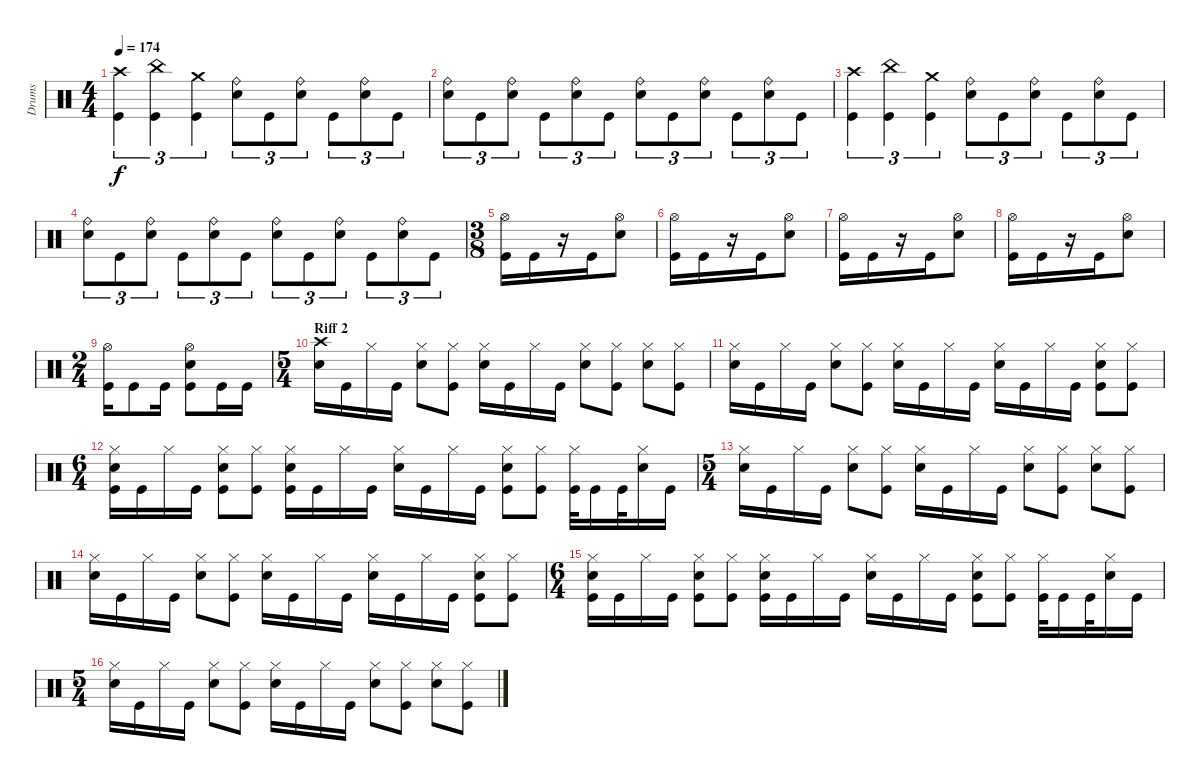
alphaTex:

\track ("Drums" "Drums") {instrument percussion}
\staff {score}
\articulation defaults
\ts (4 4)
\tempo 174
\clef neutral
\ks c
("Crash high (hit)" "Kick (hit)").4{tu (3 2) dy f} ("China (hit)" "Kick (hit)").4{tu (3 2)} ("Crash medium (hit)" "Kick (hit)").4{tu (3 2)} ("Ride (bell)" "Electric Snare (hit)").8{tu (3 2)} "Kick (hit)".8{tu (3 2)} ("Ride (bell)" "Electric Snare (hit)").8{tu (3 2)} "Kick (hit)".8{tu (3 2)} ("Ride (bell)" "Electric Snare (hit)").8{tu (3 2)} "Kick (hit)".8{tu (3 2)} |
("Ride (bell)" "Electric Snare (hit)").8{tu (3 2)} "Kick (hit)".8{tu (3 2)} ("Ride (bell)" "Electric Snare (hit)").8{tu (3 2)} "Kick (hit)".8{tu (3 2)} ("Ride (bell)" "Electric Snare (hit)").8{tu (3 2)} "Kick (hit)".8{tu (3 2)} ("Ride (bell)" "Electric Snare (hit)").8{tu (3 2)} "Kick (hit)".8{tu (3 2)} ("Ride (bell)" "Electric Snare (hit)").8{tu (3 2)} "Kick (hit)".8{tu (3 2)} ("Ride (bell)" "Electric Snare (hit)").8{tu (3 2)} "Kick (hit)".8{tu (3 2)} |
("Crash high (hit)" "Kick (hit)").4{tu (3 2)} ("China (hit)" "Kick (hit)").4{tu (3 2)} ("Crash medium (hit)" "Kick (hit)").4{tu (3 2)} ("Ride (bell)" "Electric Snare (hit)").8{tu (3 2)} "Kick (hit)".8{tu (3 2)} ("Ride (bell)" "Electric Snare (hit)").8{tu (3 2)} "Kick (hit)".8{tu (3 2)} ("Ride (bell)" "Electric Snare (hit)").8{tu (3 2)} "Kick (hit)".8{tu (3 2)} |
("Ride (bell)" "Electric Snare (hit)").8{tu (3 2)} "Kick (hit)".8{tu (3 2)} ("Ride (bell)" "Electric Snare (hit)").8{tu (3 2)} "Kick (hit)".8{tu (3 2)} ("Ride (bell)" "Electric Snare (hit)").8{tu (3 2)} "Kick (hit)".8{tu (3 2)} ("Ride (bell)" "Electric Snare (hit)").8{tu (3 2)} "Kick (hit)".8{tu (3 2)} ("Ride (bell)" "Electric Snare (hit)").8{tu (3 2)} "Kick (hit)".8{tu (3 2)} ("Ride (bell)" "Electric Snare (hit)").8{tu (3 2)} "Kick (hit)".8{tu (3 2)} |
\ts (3 8)
("Hi-Hat (open)" "Kick (hit)").16 "Kick (hit)".16 r.16 "Kick (hit)".16 ("Hi-Hat (open)" "Electric Snare (hit)").8 |
("Hi-Hat (open)" "Kick (hit)").16 "Kick (hit)".16 r.16 "Kick (hit)".16 ("Hi-Hat (open)" "Electric Snare (hit)").8 |
("Hi-Hat (open)" "Kick (hit)").16 "Kick (hit)".16 r.16 "Kick (hit)".16 ("Hi-Hat (open)" "Electric Snare (hit)").8 |
("Hi-Hat (open)" "Kick (hit)").16 "Kick (hit)".16 r.16 "Kick (hit)".16 ("Hi-Hat (open)" "Electric Snare (hit)").8 |
\ts (2 4)
("Hi-Hat (open)" "Kick (hit)").16 "Kick (hit)".8 "Kick (hit)".16 ("Hi-Hat (open)" "Electric Snare (hit)" "Kick (hit)").8 "Kick (hit)".16 "Kick (hit)".16 |
\ts (5 4)
\section ("" "Riff 2")
("Crash high (hit)" "Electric Snare (hit)").16 "Kick (hit)".16 "Hi-Hat (closed)".16 "Kick (hit)".16 ("Hi-Hat (closed)" "Electric Snare (hit)").8 ("Hi-Hat (closed)" "Kick (hit)").8 ("Hi-Hat (closed)" "Electric Snare (hit)").16 "Kick (hit)".16 "Hi-Hat (closed)".16 "Kick (hit)".16 ("Hi-Hat (closed)" "Electric Snare (hit)").8 ("Hi-Hat (closed)" "Kick (hit)").8 ("Hi-Hat (closed)" "Electric Snare (hit)").8 ("Hi-Hat (closed)" "Kick (hit)").8 |
("Hi-Hat (closed)" "Electric Snare (hit)").16 "Kick (hit)".16 "Hi-Hat (closed)".16 "Kick (hit)".16 ("Hi-Hat (closed)" "Electric Snare (hit)").8 ("Hi-Hat (closed)" "Kick (hit)").8 ("Hi-Hat (closed)" "Electric Snare (hit)").16 "Kick (hit)".16 "Hi-Hat (closed)".16 "Kick (hit)".16 ("Hi-Hat (closed)" "Electric Snare (hit)").16 "Kick (hit)".16 "Hi-Hat (closed)".16 "Kick (hit)".16 ("Hi-Hat (closed)" "Electric Snare (hit)" "Kick (hit)").8 ("Hi-Hat (closed)" "Kick (hit)").8 |
\ts (6 4)
("Hi-Hat (closed)" "Electric Snare (hit)" "Kick (hit)").16 "Kick (hit)".16 "Hi-Hat (closed)".16 "Kick (hit)".16 ("Hi-Hat (closed)" "Electric Snare (hit)" "Kick (hit)").8 ("Hi-Hat (closed)" "Kick (hit)").8 ("Hi-Hat (closed)" "Electric Snare (hit)" "Kick (hit)").16 "Kick (hit)".16 "Hi-Hat (closed)".16 "Kick (hit)".16 ("Hi-Hat (closed)" "Electric Snare (hit)").16 "Kick (hit)".16 "Hi-Hat (closed)".16 "Kick (hit)".16 ("Hi-Hat (closed)" "Electric Snare (hit)" "Kick (hit)").8 ("Hi-Hat (closed)" "Kick (hit)").8 ("Hi-Hat (closed)" "Kick (hit)").32 "Kick (hit)".16 "Kick (hit)".32 ("Hi-Hat (closed)" "Electric Snare (hit)").16 "Kick (hit)".16 |
\ts (5 4)
("Hi-Hat (closed)" "Electric Snare (hit)").16 "Kick (hit)".16 "Hi-Hat (closed)".16 "Kick (hit)".16 ("Hi-Hat (closed)" "Electric Snare (hit)").8 ("Hi-Hat (closed)" "Kick (hit)").8 ("Hi-Hat (closed)" "Electric Snare (hit)").16 "Kick (hit)".16 "Hi-Hat (closed)".16 "Kick (hit)".16 ("Hi-Hat (closed)" "Electric Snare (hit)").8 ("Hi-Hat (closed)" "Kick (hit)").8 ("Hi-Hat (closed)" "Electric Snare (hit)").8 ("Hi-Hat (closed)" "Kick (hit)").8 |
("Hi-Hat (closed)" "Electric Snare (hit)").16 "Kick (hit)".16 "Hi-Hat (closed)".16 "Kick (hit)".16 ("Hi-Hat (closed)" "Electric Snare (hit)").8 ("Hi-Hat (closed)" "Kick (hit)").8 ("Hi-Hat (closed)" "Electric Snare (hit)").16 "Kick (hit)".16 "Hi-Hat (closed)".16 "Kick (hit)".16 ("Hi-Hat (closed)" "Electric Snare (hit)").16 "Kick (hit)".16 "Hi-Hat (closed)".16 "Kick (hit)".16 ("Hi-Hat (closed)" "Electric Snare (hit)" "Kick (hit)").8 ("Hi-Hat (closed)" "Kick (hit)").8 |
\ts (6 4)
("Hi-Hat (closed)" "Electric Snare (hit)" "Kick (hit)").16 "Kick (hit)".16 "Hi-Hat (closed)".16 "Kick (hit)".16 ("Hi-Hat (closed)" "Electric Snare (hit)" "Kick (hit)").8 ("Hi-Hat (closed)" "Kick (hit)").8 ("Hi-Hat (closed)" "Electric Snare (hit)" "Kick (hit)").16 "Kick (hit)".16 "Hi-Hat (closed)".16 "Kick (hit)".16 ("Hi-Hat (closed)" "Electric Snare (hit)").16 "Kick (hit)".16 "Hi-Hat (closed)".16 "Kick (hit)".16 ("Hi-Hat (closed)" "Electric Snare (hit)" "Kick (hit)").8 ("Hi-Hat (closed)" "Kick (hit)").8 ("Hi-Hat (closed)" "Kick (hit)").32 "Kick (hit)".16 "Kick (hit)".32 ("Hi-Hat (closed)" "Electric Snare (hit)").16 "Kick (hit)".16 |
\ts (5 4)
("Hi-Hat (closed)" "Electric Snare (hit)").16 "Kick (hit)".16 "Hi-Hat (closed)".16 "Kick (hit)".16 ("Hi-Hat (closed)" "Electric Snare (hit)").8 ("Hi-Hat (closed)" "Kick (hit)").8 ("Hi-Hat (closed)" "Electric Snare (hit)").16 "Kick (hit)".16 "Hi-Hat (closed)".16 "Kick (hit)".16 ("Hi-Hat (closed)" "Electric Snare (hit)").8 ("Hi-Hat (closed)" "Kick (hit)").8 ("Hi-Hat (closed)" "Electric Snare (hit)").8 ("Hi-Hat (closed)" "Kick (hit)").8
